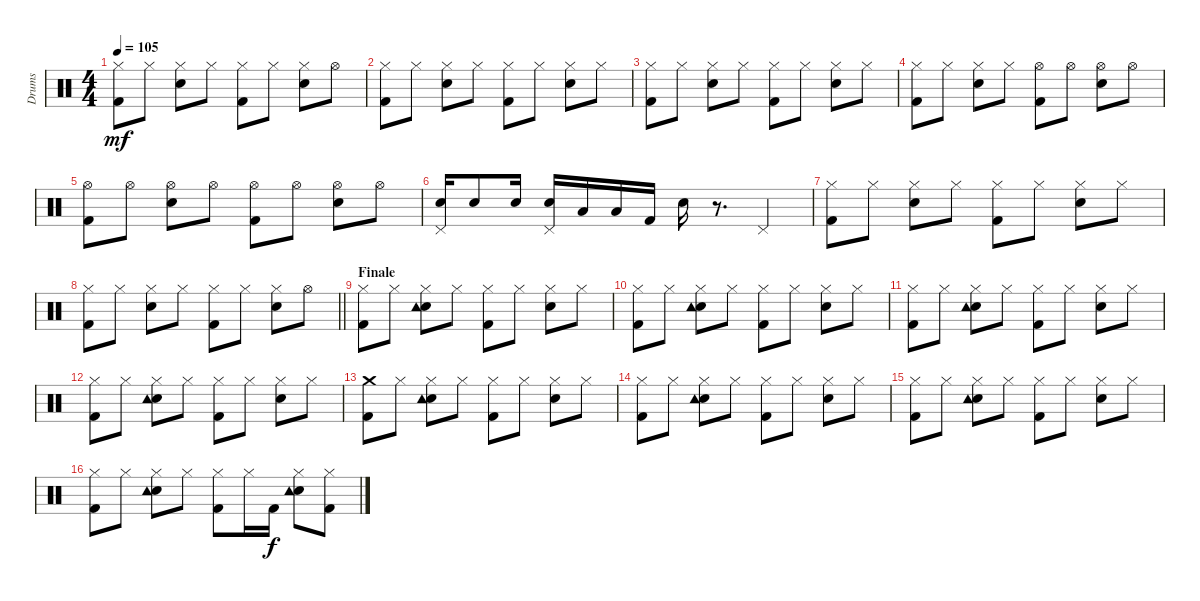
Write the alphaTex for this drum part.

\track ("Drums" "Drums") {instrument percussion}
\staff {score}
\articulation defaults
\ts (4 4)
\tempo 105
\clef neutral
\ks c
("Hi-Hat (closed)" "Kick (hit) 2").8{dy mf} "Hi-Hat (closed)".8 ("Hi-Hat (closed)" "Snare (hit) 2").8 "Hi-Hat (closed)".8 ("Hi-Hat (closed)" "Kick (hit) 2").8 "Hi-Hat (closed)".8 ("Hi-Hat (closed)" "Snare (hit) 2").8 "Hi-Hat (open)".8 |
("Hi-Hat (closed)" "Kick (hit) 2").8 "Hi-Hat (closed)".8 ("Hi-Hat (closed)" "Snare (hit) 2").8 "Hi-Hat (closed)".8 ("Hi-Hat (closed)" "Kick (hit) 2").8 "Hi-Hat (closed)".8 ("Hi-Hat (closed)" "Snare (hit) 2").8 "Hi-Hat (closed)".8 |
("Hi-Hat (closed)" "Kick (hit) 2").8 "Hi-Hat (closed)".8 ("Hi-Hat (closed)" "Snare (hit) 2").8 "Hi-Hat (closed)".8 ("Hi-Hat (closed)" "Kick (hit) 2").8 "Hi-Hat (closed)".8 ("Hi-Hat (closed)" "Snare (hit) 2").8 "Hi-Hat (closed)".8 |
("Hi-Hat (closed)" "Kick (hit) 2").8 "Hi-Hat (closed)".8 ("Hi-Hat (closed)" "Snare (hit) 2").8 "Hi-Hat (closed)".8 ("Hi-Hat (open)" "Kick (hit) 2").8 "Hi-Hat (open)".8 ("Hi-Hat (open)" "Snare (hit) 2").8 "Hi-Hat (open)".8 |
("Hi-Hat (open)" "Kick (hit) 2").8 "Hi-Hat (open)".8 ("Hi-Hat (open)" "Snare (hit) 2").8 "Hi-Hat (open)".8 ("Hi-Hat (open)" "Kick (hit) 2").8 "Hi-Hat (open)".8 ("Hi-Hat (open)" "Snare (hit) 2").8 "Hi-Hat (open)".8 |
("Pedal Hi-Hat (hit)" "Snare (hit) 2").16 "Snare (hit) 2".8 "Snare (hit) 2".16 ("Pedal Hi-Hat (hit)" "Snare (hit) 2").16 "Low Tom (hit)".16 "Low Tom (hit)".16 "Kick (hit) 2".16 "Snare (hit) 2".16 r.8{d} "Pedal Hi-Hat (hit)".4 |
("Hi-Hat (closed)" "Kick (hit) 2").8 "Hi-Hat (closed)".8 ("Hi-Hat (closed)" "Snare (hit) 2").8 "Hi-Hat (closed)".8 ("Hi-Hat (closed)" "Kick (hit) 2").8 "Hi-Hat (closed)".8 ("Hi-Hat (closed)" "Snare (hit) 2").8 "Hi-Hat (closed)".8 |
\barLineRight lightlight
("Hi-Hat (closed)" "Kick (hit) 2").8 "Hi-Hat (closed)".8 ("Hi-Hat (closed)" "Snare (hit) 2").8 "Hi-Hat (closed)".8 ("Hi-Hat (closed)" "Kick (hit) 2").8 "Hi-Hat (closed)".8 ("Hi-Hat (closed)" "Snare (hit) 2").8 "Hi-Hat (open)".8 |
\section ("" "Finale")
("Hi-Hat (closed)" "Kick (hit) 2").8 "Hi-Hat (closed)".8 ("Hi-Hat (closed)" "Snare (hit) 2" "Tambourine (hit)").8 "Hi-Hat (closed)".8 ("Hi-Hat (closed)" "Kick (hit) 2").8 "Hi-Hat (closed)".8 ("Hi-Hat (closed)" "Snare (hit) 2").8 "Hi-Hat (closed)".8 |
("Hi-Hat (closed)" "Kick (hit) 2").8 "Hi-Hat (closed)".8 ("Hi-Hat (closed)" "Snare (hit) 2" "Tambourine (hit)").8 "Hi-Hat (closed)".8 ("Hi-Hat (closed)" "Kick (hit) 2").8 "Hi-Hat (closed)".8 ("Hi-Hat (closed)" "Snare (hit) 2").8 "Hi-Hat (closed)".8 |
("Hi-Hat (closed)" "Kick (hit) 2").8 "Hi-Hat (closed)".8 ("Hi-Hat (closed)" "Snare (hit) 2" "Tambourine (hit)").8 "Hi-Hat (closed)".8 ("Hi-Hat (closed)" "Kick (hit) 2").8 "Hi-Hat (closed)".8 ("Hi-Hat (closed)" "Snare (hit) 2").8 "Hi-Hat (closed)".8 |
("Hi-Hat (closed)" "Kick (hit) 2").8 "Hi-Hat (closed)".8 ("Hi-Hat (closed)" "Snare (hit) 2" "Tambourine (hit)").8 "Hi-Hat (closed)".8 ("Hi-Hat (closed)" "Kick (hit) 2").8 "Hi-Hat (closed)".8 ("Hi-Hat (closed)" "Snare (hit) 2").8 "Hi-Hat (closed)".8 |
("Crash medium (hit)" "Kick (hit) 2").8 "Hi-Hat (closed)".8 ("Hi-Hat (closed)" "Snare (hit) 2" "Tambourine (hit)").8 "Hi-Hat (closed)".8 ("Hi-Hat (closed)" "Kick (hit) 2").8 "Hi-Hat (closed)".8 ("Hi-Hat (closed)" "Snare (hit) 2").8 "Hi-Hat (closed)".8 |
("Hi-Hat (closed)" "Kick (hit) 2").8 "Hi-Hat (closed)".8 ("Hi-Hat (closed)" "Snare (hit) 2" "Tambourine (hit)").8 "Hi-Hat (closed)".8 ("Hi-Hat (closed)" "Kick (hit) 2").8 "Hi-Hat (closed)".8 ("Hi-Hat (closed)" "Snare (hit) 2").8 "Hi-Hat (closed)".8 |
("Hi-Hat (closed)" "Kick (hit) 2").8 "Hi-Hat (closed)".8 ("Hi-Hat (closed)" "Snare (hit) 2" "Tambourine (hit)").8 "Hi-Hat (closed)".8 ("Hi-Hat (closed)" "Kick (hit) 2").8 "Hi-Hat (closed)".8 ("Hi-Hat (closed)" "Snare (hit) 2").8 "Hi-Hat (closed)".8 |
("Hi-Hat (closed)" "Kick (hit) 2").8 "Hi-Hat (closed)".8 ("Hi-Hat (closed)" "Snare (hit) 2" "Tambourine (hit)").8 "Hi-Hat (closed)".8 ("Hi-Hat (closed)" "Kick (hit) 2").8 "Hi-Hat (closed)".16 "Kick (hit) 2".16{dy f} ("Hi-Hat (closed)" "Snare (hit) 2" "Tambourine (hit)").8 ("Hi-Hat (closed)" "Kick (hit) 2").8
